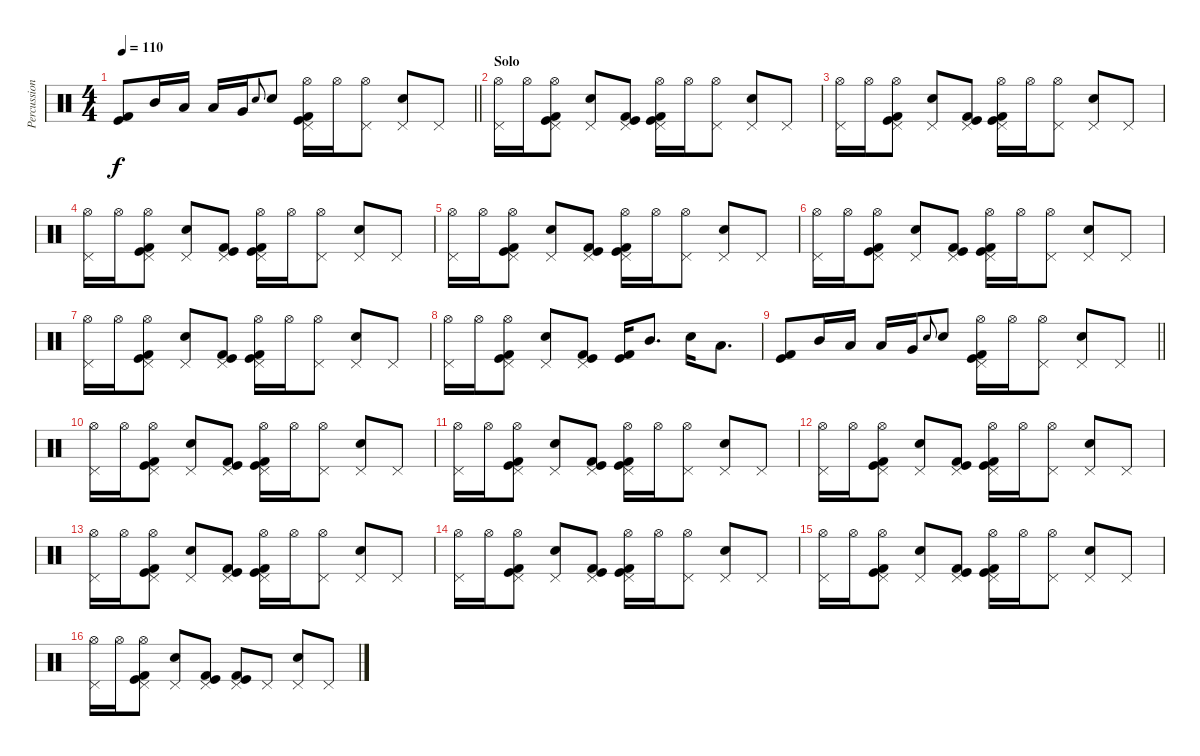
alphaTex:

\track ("Percussion" "Percussion") {instrument percussion}
\staff {score}
\articulation defaults
\ts (4 4)
\tempo 110
\clef neutral
\barLineRight lightlight
\ks c
("Kick (hit)" "Kick (hit) 2").8{dy f} "Mid Tom (hit)".16 "Low Tom (hit)".16 "Low Tom (hit)".16 "Very Low Tom (hit)".16 "Electric Snare (hit)".8{gr onbeat} "Electric Snare (hit)".8 ("Hi-Hat (open)" "Pedal Hi-Hat (hit)" "Kick (hit)" "Kick (hit) 2").16 "Hi-Hat (open)".16 ("Hi-Hat (open)" "Pedal Hi-Hat (hit)").8 ("Pedal Hi-Hat (hit)" "Electric Snare (hit)").8 "Pedal Hi-Hat (hit)".8 |
\section ("" "Solo")
("Hi-Hat (open)" "Pedal Hi-Hat (hit)").16 "Hi-Hat (open)".16 ("Hi-Hat (open)" "Pedal Hi-Hat (hit)" "Kick (hit)" "Kick (hit) 2").8 ("Pedal Hi-Hat (hit)" "Electric Snare (hit)").8 ("Pedal Hi-Hat (hit)" "Kick (hit)" "Kick (hit) 2").8 ("Hi-Hat (open)" "Pedal Hi-Hat (hit)" "Kick (hit)" "Kick (hit) 2").16 "Hi-Hat (open)".16 ("Hi-Hat (open)" "Pedal Hi-Hat (hit)").8 ("Pedal Hi-Hat (hit)" "Electric Snare (hit)").8 "Pedal Hi-Hat (hit)".8 |
("Hi-Hat (open)" "Pedal Hi-Hat (hit)").16 "Hi-Hat (open)".16 ("Hi-Hat (open)" "Pedal Hi-Hat (hit)" "Kick (hit)" "Kick (hit) 2").8 ("Pedal Hi-Hat (hit)" "Electric Snare (hit)").8 ("Pedal Hi-Hat (hit)" "Kick (hit)" "Kick (hit) 2").8 ("Hi-Hat (open)" "Pedal Hi-Hat (hit)" "Kick (hit)" "Kick (hit) 2").16 "Hi-Hat (open)".16 ("Hi-Hat (open)" "Pedal Hi-Hat (hit)").8 ("Pedal Hi-Hat (hit)" "Electric Snare (hit)").8 "Pedal Hi-Hat (hit)".8 |
("Hi-Hat (open)" "Pedal Hi-Hat (hit)").16 "Hi-Hat (open)".16 ("Hi-Hat (open)" "Pedal Hi-Hat (hit)" "Kick (hit)" "Kick (hit) 2").8 ("Pedal Hi-Hat (hit)" "Electric Snare (hit)").8 ("Pedal Hi-Hat (hit)" "Kick (hit)" "Kick (hit) 2").8 ("Hi-Hat (open)" "Pedal Hi-Hat (hit)" "Kick (hit)" "Kick (hit) 2").16 "Hi-Hat (open)".16 ("Hi-Hat (open)" "Pedal Hi-Hat (hit)").8 ("Pedal Hi-Hat (hit)" "Electric Snare (hit)").8 "Pedal Hi-Hat (hit)".8 |
("Hi-Hat (open)" "Pedal Hi-Hat (hit)").16 "Hi-Hat (open)".16 ("Hi-Hat (open)" "Pedal Hi-Hat (hit)" "Kick (hit)" "Kick (hit) 2").8 ("Pedal Hi-Hat (hit)" "Electric Snare (hit)").8 ("Pedal Hi-Hat (hit)" "Kick (hit)" "Kick (hit) 2").8 ("Hi-Hat (open)" "Pedal Hi-Hat (hit)" "Kick (hit)" "Kick (hit) 2").16 "Hi-Hat (open)".16 ("Hi-Hat (open)" "Pedal Hi-Hat (hit)").8 ("Pedal Hi-Hat (hit)" "Electric Snare (hit)").8 "Pedal Hi-Hat (hit)".8 |
("Hi-Hat (open)" "Pedal Hi-Hat (hit)").16 "Hi-Hat (open)".16 ("Hi-Hat (open)" "Pedal Hi-Hat (hit)" "Kick (hit)" "Kick (hit) 2").8 ("Pedal Hi-Hat (hit)" "Electric Snare (hit)").8 ("Pedal Hi-Hat (hit)" "Kick (hit)" "Kick (hit) 2").8 ("Hi-Hat (open)" "Pedal Hi-Hat (hit)" "Kick (hit)" "Kick (hit) 2").16 "Hi-Hat (open)".16 ("Hi-Hat (open)" "Pedal Hi-Hat (hit)").8 ("Pedal Hi-Hat (hit)" "Electric Snare (hit)").8 "Pedal Hi-Hat (hit)".8 |
("Hi-Hat (open)" "Pedal Hi-Hat (hit)").16 "Hi-Hat (open)".16 ("Hi-Hat (open)" "Pedal Hi-Hat (hit)" "Kick (hit)" "Kick (hit) 2").8 ("Pedal Hi-Hat (hit)" "Electric Snare (hit)").8 ("Pedal Hi-Hat (hit)" "Kick (hit)" "Kick (hit) 2").8 ("Hi-Hat (open)" "Pedal Hi-Hat (hit)" "Kick (hit)" "Kick (hit) 2").16 "Hi-Hat (open)".16 ("Hi-Hat (open)" "Pedal Hi-Hat (hit)").8 ("Pedal Hi-Hat (hit)" "Electric Snare (hit)").8 "Pedal Hi-Hat (hit)".8 |
("Hi-Hat (open)" "Pedal Hi-Hat (hit)").16 "Hi-Hat (open)".16 ("Hi-Hat (open)" "Pedal Hi-Hat (hit)" "Kick (hit)" "Kick (hit) 2").8 ("Pedal Hi-Hat (hit)" "Electric Snare (hit)").8 ("Pedal Hi-Hat (hit)" "Kick (hit)" "Kick (hit) 2").8 ("Kick (hit)" "Kick (hit) 2").16 "Mid Tom (hit)".8{d} "Electric Snare (hit)".16 "Low Tom (hit)".8{d} |
\barLineRight lightlight
("Kick (hit)" "Kick (hit) 2").8 "Mid Tom (hit)".16 "Low Tom (hit)".16 "Low Tom (hit)".16 "Very Low Tom (hit)".16 "Electric Snare (hit)".8{gr onbeat} "Electric Snare (hit)".8 ("Hi-Hat (open)" "Pedal Hi-Hat (hit)" "Kick (hit)" "Kick (hit) 2").16 "Hi-Hat (open)".16 ("Hi-Hat (open)" "Pedal Hi-Hat (hit)").8 ("Pedal Hi-Hat (hit)" "Electric Snare (hit)").8 "Pedal Hi-Hat (hit)".8 |
("Hi-Hat (open)" "Pedal Hi-Hat (hit)").16 "Hi-Hat (open)".16 ("Hi-Hat (open)" "Pedal Hi-Hat (hit)" "Kick (hit)" "Kick (hit) 2").8 ("Pedal Hi-Hat (hit)" "Electric Snare (hit)").8 ("Pedal Hi-Hat (hit)" "Kick (hit)" "Kick (hit) 2").8 ("Hi-Hat (open)" "Pedal Hi-Hat (hit)" "Kick (hit)" "Kick (hit) 2").16 "Hi-Hat (open)".16 ("Hi-Hat (open)" "Pedal Hi-Hat (hit)").8 ("Pedal Hi-Hat (hit)" "Electric Snare (hit)").8 "Pedal Hi-Hat (hit)".8 |
("Hi-Hat (open)" "Pedal Hi-Hat (hit)").16 "Hi-Hat (open)".16 ("Hi-Hat (open)" "Pedal Hi-Hat (hit)" "Kick (hit)" "Kick (hit) 2").8 ("Pedal Hi-Hat (hit)" "Electric Snare (hit)").8 ("Pedal Hi-Hat (hit)" "Kick (hit)" "Kick (hit) 2").8 ("Hi-Hat (open)" "Pedal Hi-Hat (hit)" "Kick (hit)" "Kick (hit) 2").16 "Hi-Hat (open)".16 ("Hi-Hat (open)" "Pedal Hi-Hat (hit)").8 ("Pedal Hi-Hat (hit)" "Electric Snare (hit)").8 "Pedal Hi-Hat (hit)".8 |
("Hi-Hat (open)" "Pedal Hi-Hat (hit)").16 "Hi-Hat (open)".16 ("Hi-Hat (open)" "Pedal Hi-Hat (hit)" "Kick (hit)" "Kick (hit) 2").8 ("Pedal Hi-Hat (hit)" "Electric Snare (hit)").8 ("Pedal Hi-Hat (hit)" "Kick (hit)" "Kick (hit) 2").8 ("Hi-Hat (open)" "Pedal Hi-Hat (hit)" "Kick (hit)" "Kick (hit) 2").16 "Hi-Hat (open)".16 ("Hi-Hat (open)" "Pedal Hi-Hat (hit)").8 ("Pedal Hi-Hat (hit)" "Electric Snare (hit)").8 "Pedal Hi-Hat (hit)".8 |
("Hi-Hat (open)" "Pedal Hi-Hat (hit)").16 "Hi-Hat (open)".16 ("Hi-Hat (open)" "Pedal Hi-Hat (hit)" "Kick (hit)" "Kick (hit) 2").8 ("Pedal Hi-Hat (hit)" "Electric Snare (hit)").8 ("Pedal Hi-Hat (hit)" "Kick (hit)" "Kick (hit) 2").8 ("Hi-Hat (open)" "Pedal Hi-Hat (hit)" "Kick (hit)" "Kick (hit) 2").16 "Hi-Hat (open)".16 ("Hi-Hat (open)" "Pedal Hi-Hat (hit)").8 ("Pedal Hi-Hat (hit)" "Electric Snare (hit)").8 "Pedal Hi-Hat (hit)".8 |
("Hi-Hat (open)" "Pedal Hi-Hat (hit)").16 "Hi-Hat (open)".16 ("Hi-Hat (open)" "Pedal Hi-Hat (hit)" "Kick (hit)" "Kick (hit) 2").8 ("Pedal Hi-Hat (hit)" "Electric Snare (hit)").8 ("Pedal Hi-Hat (hit)" "Kick (hit)" "Kick (hit) 2").8 ("Hi-Hat (open)" "Pedal Hi-Hat (hit)" "Kick (hit)" "Kick (hit) 2").16 "Hi-Hat (open)".16 ("Hi-Hat (open)" "Pedal Hi-Hat (hit)").8 ("Pedal Hi-Hat (hit)" "Electric Snare (hit)").8 "Pedal Hi-Hat (hit)".8 |
("Hi-Hat (open)" "Pedal Hi-Hat (hit)").16 "Hi-Hat (open)".16 ("Hi-Hat (open)" "Pedal Hi-Hat (hit)" "Kick (hit)" "Kick (hit) 2").8 ("Pedal Hi-Hat (hit)" "Electric Snare (hit)").8 ("Pedal Hi-Hat (hit)" "Kick (hit)" "Kick (hit) 2").8 ("Hi-Hat (open)" "Pedal Hi-Hat (hit)" "Kick (hit)" "Kick (hit) 2").16 "Hi-Hat (open)".16 ("Hi-Hat (open)" "Pedal Hi-Hat (hit)").8 ("Pedal Hi-Hat (hit)" "Electric Snare (hit)").8 "Pedal Hi-Hat (hit)".8 |
("Hi-Hat (open)" "Pedal Hi-Hat (hit)").16 "Hi-Hat (open)".16 ("Hi-Hat (open)" "Pedal Hi-Hat (hit)" "Kick (hit)" "Kick (hit) 2").8 ("Pedal Hi-Hat (hit)" "Electric Snare (hit)").8 ("Pedal Hi-Hat (hit)" "Kick (hit)" "Kick (hit) 2").8 ("Pedal Hi-Hat (hit)" "Kick (hit)" "Kick (hit) 2").8 "Pedal Hi-Hat (hit)".8 ("Pedal Hi-Hat (hit)" "Electric Snare (hit)").8 "Pedal Hi-Hat (hit)".8
